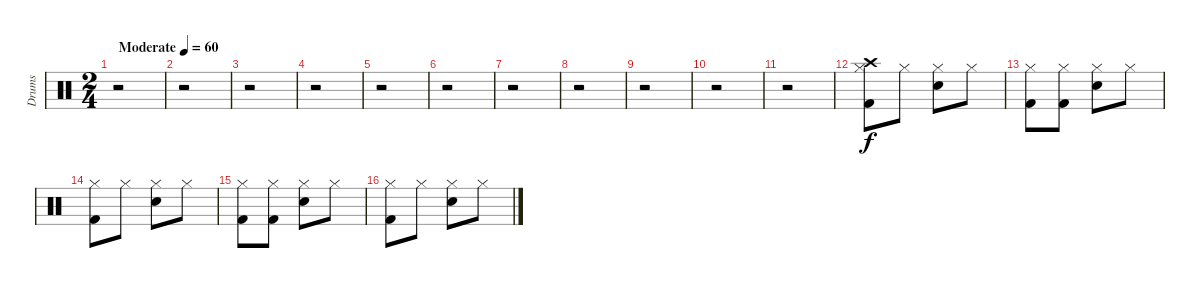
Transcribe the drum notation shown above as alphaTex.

\track ("Drums" "Drums") {instrument percussion}
\staff {score}
\articulation defaults
\ts (2 4)
\tempo (60 "Moderate")
\clef neutral
\ks c
r.2{dy f} |
r.2 |
r.2 |
r.2 |
r.2 |
r.2 |
r.2 |
r.2 |
r.2 |
r.2 |
r.2 |
("Hi-Hat (closed)" "Crash high (hit)" "Kick (hit) 2").8 "Hi-Hat (closed)".8 ("Hi-Hat (closed)" "Snare (hit) 2").8 "Hi-Hat (closed)".8 |
("Hi-Hat (closed)" "Kick (hit) 2").8 ("Hi-Hat (closed)" "Kick (hit) 2").8 ("Hi-Hat (closed)" "Snare (hit) 2").8 "Hi-Hat (closed)".8 |
("Hi-Hat (closed)" "Kick (hit) 2").8 "Hi-Hat (closed)".8 ("Hi-Hat (closed)" "Snare (hit) 2").8 "Hi-Hat (closed)".8 |
("Hi-Hat (closed)" "Kick (hit) 2").8 ("Hi-Hat (closed)" "Kick (hit) 2").8 ("Hi-Hat (closed)" "Snare (hit) 2").8 "Hi-Hat (closed)".8 |
("Hi-Hat (closed)" "Kick (hit) 2").8 "Hi-Hat (closed)".8 ("Hi-Hat (closed)" "Snare (hit) 2").8 "Hi-Hat (closed)".8
